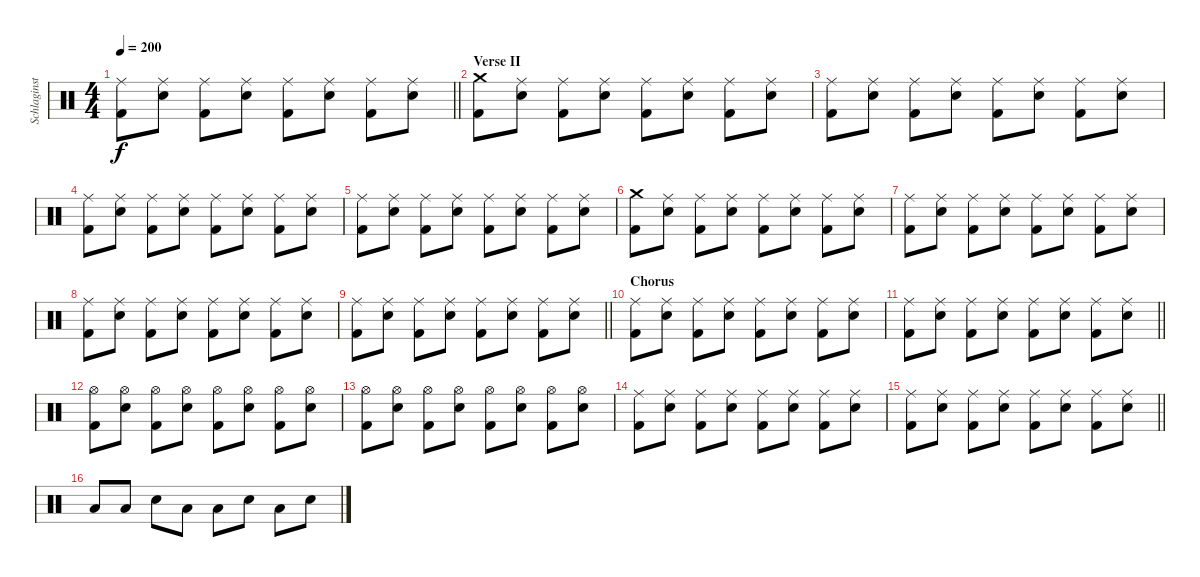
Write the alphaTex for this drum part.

\track ("Schlaginstrumente - Auswahl" "Schlaginst") {instrument percussion}
\staff {score}
\articulation defaults
\ts (4 4)
\tempo 200
\clef neutral
\barLineRight lightlight
\ks c
("Ride (middle)" "Kick (hit) 2").8{dy f} ("Ride (middle)" "Electric Snare (hit)").8 ("Ride (middle)" "Kick (hit) 2").8 ("Ride (middle)" "Electric Snare (hit)").8 ("Ride (middle)" "Kick (hit) 2").8 ("Ride (middle)" "Electric Snare (hit)").8 ("Ride (middle)" "Kick (hit) 2").8 ("Ride (middle)" "Electric Snare (hit)").8 |
\section ("" "Verse II")
("Crash medium (hit)" "Kick (hit) 2").8 ("Ride (middle)" "Electric Snare (hit)").8 ("Ride (middle)" "Kick (hit) 2").8 ("Ride (middle)" "Electric Snare (hit)").8 ("Ride (middle)" "Kick (hit) 2").8 ("Ride (middle)" "Electric Snare (hit)").8 ("Ride (middle)" "Kick (hit) 2").8 ("Ride (middle)" "Electric Snare (hit)").8 |
("Ride (middle)" "Kick (hit) 2").8 ("Ride (middle)" "Electric Snare (hit)").8 ("Ride (middle)" "Kick (hit) 2").8 ("Ride (middle)" "Electric Snare (hit)").8 ("Ride (middle)" "Kick (hit) 2").8 ("Ride (middle)" "Electric Snare (hit)").8 ("Ride (middle)" "Kick (hit) 2").8 ("Ride (middle)" "Electric Snare (hit)").8 |
("Ride (middle)" "Kick (hit) 2").8 ("Ride (middle)" "Electric Snare (hit)").8 ("Ride (middle)" "Kick (hit) 2").8 ("Ride (middle)" "Electric Snare (hit)").8 ("Ride (middle)" "Kick (hit) 2").8 ("Ride (middle)" "Electric Snare (hit)").8 ("Ride (middle)" "Kick (hit) 2").8 ("Ride (middle)" "Electric Snare (hit)").8 |
("Ride (middle)" "Kick (hit) 2").8 ("Ride (middle)" "Electric Snare (hit)").8 ("Ride (middle)" "Kick (hit) 2").8 ("Ride (middle)" "Electric Snare (hit)").8 ("Ride (middle)" "Kick (hit) 2").8 ("Ride (middle)" "Electric Snare (hit)").8 ("Ride (middle)" "Kick (hit) 2").8 ("Ride (middle)" "Electric Snare (hit)").8 |
("Crash medium (hit)" "Kick (hit) 2").8 ("Ride (middle)" "Electric Snare (hit)").8 ("Ride (middle)" "Kick (hit) 2").8 ("Ride (middle)" "Electric Snare (hit)").8 ("Ride (middle)" "Kick (hit) 2").8 ("Ride (middle)" "Electric Snare (hit)").8 ("Ride (middle)" "Kick (hit) 2").8 ("Ride (middle)" "Electric Snare (hit)").8 |
("Ride (middle)" "Kick (hit) 2").8 ("Ride (middle)" "Electric Snare (hit)").8 ("Ride (middle)" "Kick (hit) 2").8 ("Ride (middle)" "Electric Snare (hit)").8 ("Ride (middle)" "Kick (hit) 2").8 ("Ride (middle)" "Electric Snare (hit)").8 ("Ride (middle)" "Kick (hit) 2").8 ("Ride (middle)" "Electric Snare (hit)").8 |
("Ride (middle)" "Kick (hit) 2").8 ("Ride (middle)" "Electric Snare (hit)").8 ("Ride (middle)" "Kick (hit) 2").8 ("Ride (middle)" "Electric Snare (hit)").8 ("Ride (middle)" "Kick (hit) 2").8 ("Ride (middle)" "Electric Snare (hit)").8 ("Ride (middle)" "Kick (hit) 2").8 ("Ride (middle)" "Electric Snare (hit)").8 |
\barLineRight lightlight
("Ride (middle)" "Kick (hit) 2").8 ("Ride (middle)" "Electric Snare (hit)").8 ("Ride (middle)" "Kick (hit) 2").8 ("Ride (middle)" "Electric Snare (hit)").8 ("Ride (middle)" "Kick (hit) 2").8 ("Ride (middle)" "Electric Snare (hit)").8 ("Ride (middle)" "Kick (hit) 2").8 ("Ride (middle)" "Electric Snare (hit)").8 |
\section ("" "Chorus")
("Ride (middle)" "Kick (hit) 2").8 ("Ride (middle)" "Electric Snare (hit)").8 ("Ride (middle)" "Kick (hit) 2").8 ("Ride (middle)" "Electric Snare (hit)").8 ("Ride (middle)" "Kick (hit) 2").8 ("Ride (middle)" "Electric Snare (hit)").8 ("Ride (middle)" "Kick (hit) 2").8 ("Ride (middle)" "Electric Snare (hit)").8 |
\barLineRight lightlight
("Ride (middle)" "Kick (hit) 2").8 ("Ride (middle)" "Electric Snare (hit)").8 ("Ride (middle)" "Kick (hit) 2").8 ("Ride (middle)" "Electric Snare (hit)").8 ("Ride (middle)" "Kick (hit) 2").8 ("Ride (middle)" "Electric Snare (hit)").8 ("Ride (middle)" "Kick (hit) 2").8 ("Ride (middle)" "Electric Snare (hit)").8 |
("Hi-Hat (open)" "Kick (hit) 2").8 ("Hi-Hat (open)" "Electric Snare (hit)").8 ("Hi-Hat (open)" "Kick (hit) 2").8 ("Hi-Hat (open)" "Electric Snare (hit)").8 ("Hi-Hat (open)" "Kick (hit) 2").8 ("Hi-Hat (open)" "Electric Snare (hit)").8 ("Hi-Hat (open)" "Kick (hit) 2").8 ("Hi-Hat (open)" "Electric Snare (hit)").8 |
("Hi-Hat (open)" "Kick (hit) 2").8 ("Hi-Hat (open)" "Electric Snare (hit)").8 ("Hi-Hat (open)" "Kick (hit) 2").8 ("Hi-Hat (open)" "Electric Snare (hit)").8 ("Hi-Hat (open)" "Kick (hit) 2").8 ("Hi-Hat (open)" "Electric Snare (hit)").8 ("Hi-Hat (open)" "Kick (hit) 2").8 ("Hi-Hat (open)" "Electric Snare (hit)").8 |
("Ride (middle)" "Kick (hit) 2").8 ("Ride (middle)" "Electric Snare (hit)").8 ("Ride (middle)" "Kick (hit) 2").8 ("Ride (middle)" "Electric Snare (hit)").8 ("Ride (middle)" "Kick (hit) 2").8 ("Ride (middle)" "Electric Snare (hit)").8 ("Ride (middle)" "Kick (hit) 2").8 ("Ride (middle)" "Electric Snare (hit)").8 |
\barLineRight lightlight
("Ride (middle)" "Kick (hit) 2").8 ("Ride (middle)" "Electric Snare (hit)").8 ("Ride (middle)" "Kick (hit) 2").8 ("Ride (middle)" "Electric Snare (hit)").8 ("Ride (middle)" "Kick (hit) 2").8 ("Ride (middle)" "Electric Snare (hit)").8 ("Ride (middle)" "Kick (hit) 2").8 ("Ride (middle)" "Electric Snare (hit)").8 |
"Low Tom (hit)".8 "Low Tom (hit)".8 "Electric Snare (hit)".8 "Low Tom (hit)".8 "Low Tom (hit)".8 "Electric Snare (hit)".8 "Low Tom (hit)".8 "Electric Snare (hit)".8
